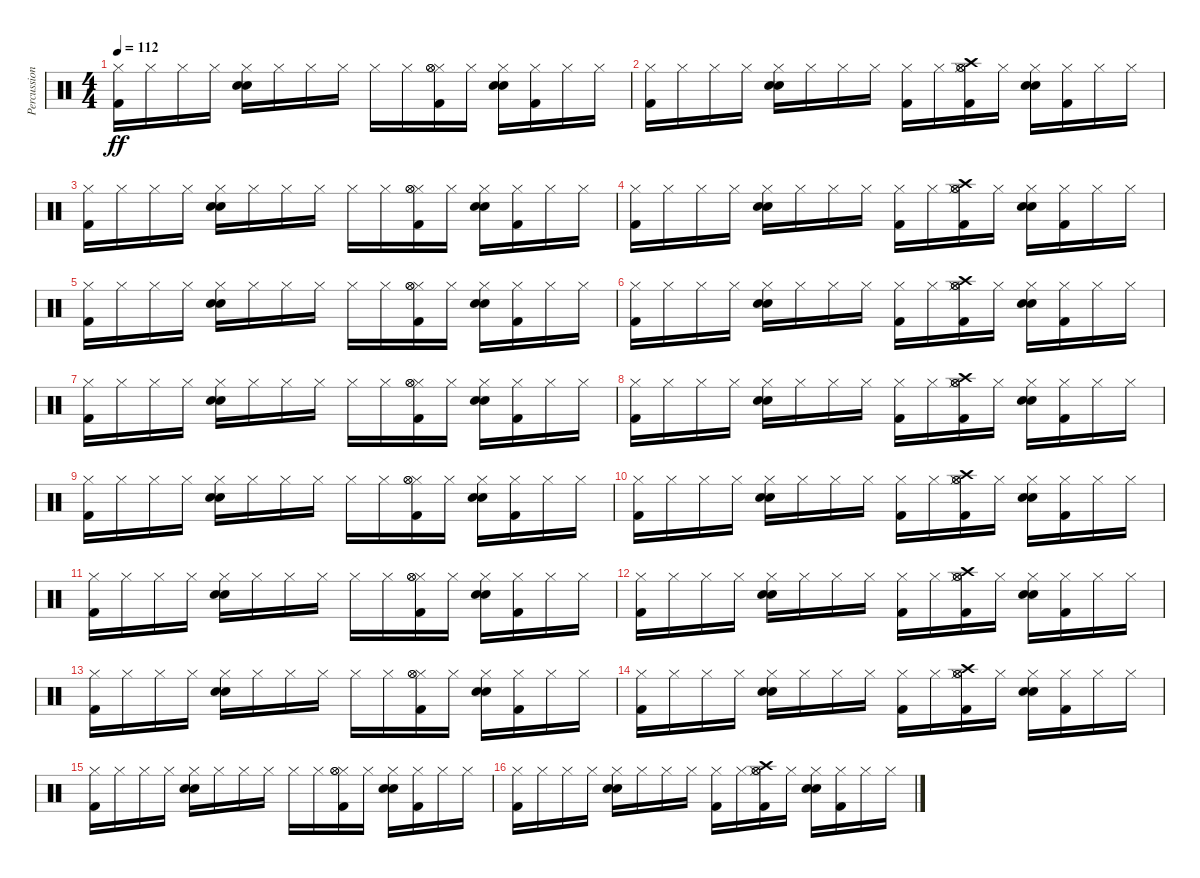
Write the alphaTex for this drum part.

\track ("Percussion" "Percussion") {instrument percussion}
\staff {score}
\articulation defaults
\ts (4 4)
\tempo 112
\clef neutral
\ks c
("Kick (hit) 2" "Hi-Hat (closed)").16{dy ff} "Hi-Hat (closed)".16 "Hi-Hat (closed)".16 "Hi-Hat (closed)".16 ("Snare (hit) 2" "Hi-Hat (closed)" "Hand Clap (hit)").16 "Hi-Hat (closed)".16 "Hi-Hat (closed)".16 "Hi-Hat (closed)".16 "Hi-Hat (closed)".16 "Hi-Hat (closed)".16 ("Kick (hit) 2" "Hi-Hat (closed)" "Hi-Hat (open)" "Hi-Hat (open)").16 "Hi-Hat (closed)".16 ("Snare (hit) 2" "Hi-Hat (closed)" "Hand Clap (hit)").16 ("Kick (hit) 2" "Hi-Hat (closed)").16 "Hi-Hat (closed)".16 "Hi-Hat (closed)".16 |
("Kick (hit) 2" "Hi-Hat (closed)").16 "Hi-Hat (closed)".16 "Hi-Hat (closed)".16 "Hi-Hat (closed)".16 ("Snare (hit) 2" "Hi-Hat (closed)" "Hand Clap (hit)").16 "Hi-Hat (closed)".16 "Hi-Hat (closed)".16 "Hi-Hat (closed)".16 ("Kick (hit) 2" "Hi-Hat (closed)").16 "Hi-Hat (closed)".16 ("Kick (hit) 2" "Crash high (hit)" "Hi-Hat (closed)" "Hi-Hat (open)" "Hi-Hat (open)").16 "Hi-Hat (closed)".16 ("Snare (hit) 2" "Hi-Hat (closed)" "Hand Clap (hit)").16 ("Kick (hit) 2" "Hi-Hat (closed)").16 "Hi-Hat (closed)".16 "Hi-Hat (closed)".16 |
("Kick (hit) 2" "Hi-Hat (closed)").16 "Hi-Hat (closed)".16 "Hi-Hat (closed)".16 "Hi-Hat (closed)".16 ("Snare (hit) 2" "Hi-Hat (closed)" "Hand Clap (hit)").16 "Hi-Hat (closed)".16 "Hi-Hat (closed)".16 "Hi-Hat (closed)".16 "Hi-Hat (closed)".16 "Hi-Hat (closed)".16 ("Kick (hit) 2" "Hi-Hat (closed)" "Hi-Hat (open)" "Hi-Hat (open)").16 "Hi-Hat (closed)".16 ("Snare (hit) 2" "Hi-Hat (closed)" "Hand Clap (hit)").16 ("Kick (hit) 2" "Hi-Hat (closed)").16 "Hi-Hat (closed)".16 "Hi-Hat (closed)".16 |
("Kick (hit) 2" "Hi-Hat (closed)").16 "Hi-Hat (closed)".16 "Hi-Hat (closed)".16 "Hi-Hat (closed)".16 ("Snare (hit) 2" "Hi-Hat (closed)" "Hand Clap (hit)").16 "Hi-Hat (closed)".16 "Hi-Hat (closed)".16 "Hi-Hat (closed)".16 ("Kick (hit) 2" "Hi-Hat (closed)").16 "Hi-Hat (closed)".16 ("Kick (hit) 2" "Crash high (hit)" "Hi-Hat (closed)" "Hi-Hat (open)" "Hi-Hat (open)").16 "Hi-Hat (closed)".16 ("Snare (hit) 2" "Hi-Hat (closed)" "Hand Clap (hit)").16 ("Kick (hit) 2" "Hi-Hat (closed)").16 "Hi-Hat (closed)".16 "Hi-Hat (closed)".16 |
("Kick (hit) 2" "Hi-Hat (closed)").16 "Hi-Hat (closed)".16 "Hi-Hat (closed)".16 "Hi-Hat (closed)".16 ("Snare (hit) 2" "Hi-Hat (closed)" "Hand Clap (hit)").16 "Hi-Hat (closed)".16 "Hi-Hat (closed)".16 "Hi-Hat (closed)".16 "Hi-Hat (closed)".16 "Hi-Hat (closed)".16 ("Kick (hit) 2" "Hi-Hat (closed)" "Hi-Hat (open)" "Hi-Hat (open)").16 "Hi-Hat (closed)".16 ("Snare (hit) 2" "Hi-Hat (closed)" "Hand Clap (hit)").16 ("Kick (hit) 2" "Hi-Hat (closed)").16 "Hi-Hat (closed)".16 "Hi-Hat (closed)".16 |
("Kick (hit) 2" "Hi-Hat (closed)").16 "Hi-Hat (closed)".16 "Hi-Hat (closed)".16 "Hi-Hat (closed)".16 ("Snare (hit) 2" "Hi-Hat (closed)" "Hand Clap (hit)").16 "Hi-Hat (closed)".16 "Hi-Hat (closed)".16 "Hi-Hat (closed)".16 ("Kick (hit) 2" "Hi-Hat (closed)").16 "Hi-Hat (closed)".16 ("Kick (hit) 2" "Crash high (hit)" "Hi-Hat (closed)" "Hi-Hat (open)" "Hi-Hat (open)").16 "Hi-Hat (closed)".16 ("Snare (hit) 2" "Hi-Hat (closed)" "Hand Clap (hit)").16 ("Kick (hit) 2" "Hi-Hat (closed)").16 "Hi-Hat (closed)".16 "Hi-Hat (closed)".16 |
("Kick (hit) 2" "Hi-Hat (closed)").16 "Hi-Hat (closed)".16 "Hi-Hat (closed)".16 "Hi-Hat (closed)".16 ("Snare (hit) 2" "Hi-Hat (closed)" "Hand Clap (hit)").16 "Hi-Hat (closed)".16 "Hi-Hat (closed)".16 "Hi-Hat (closed)".16 "Hi-Hat (closed)".16 "Hi-Hat (closed)".16 ("Kick (hit) 2" "Hi-Hat (closed)" "Hi-Hat (open)" "Hi-Hat (open)").16 "Hi-Hat (closed)".16 ("Snare (hit) 2" "Hi-Hat (closed)" "Hand Clap (hit)").16 ("Kick (hit) 2" "Hi-Hat (closed)").16 "Hi-Hat (closed)".16 "Hi-Hat (closed)".16 |
("Kick (hit) 2" "Hi-Hat (closed)").16 "Hi-Hat (closed)".16 "Hi-Hat (closed)".16 "Hi-Hat (closed)".16 ("Snare (hit) 2" "Hi-Hat (closed)" "Hand Clap (hit)").16 "Hi-Hat (closed)".16 "Hi-Hat (closed)".16 "Hi-Hat (closed)".16 ("Kick (hit) 2" "Hi-Hat (closed)").16 "Hi-Hat (closed)".16 ("Kick (hit) 2" "Crash high (hit)" "Hi-Hat (closed)" "Hi-Hat (open)" "Hi-Hat (open)").16 "Hi-Hat (closed)".16 ("Snare (hit) 2" "Hi-Hat (closed)" "Hand Clap (hit)").16 ("Kick (hit) 2" "Hi-Hat (closed)").16 "Hi-Hat (closed)".16 "Hi-Hat (closed)".16 |
("Kick (hit) 2" "Hi-Hat (closed)").16 "Hi-Hat (closed)".16 "Hi-Hat (closed)".16 "Hi-Hat (closed)".16 ("Snare (hit) 2" "Hi-Hat (closed)" "Hand Clap (hit)").16 "Hi-Hat (closed)".16 "Hi-Hat (closed)".16 "Hi-Hat (closed)".16 "Hi-Hat (closed)".16 "Hi-Hat (closed)".16 ("Kick (hit) 2" "Hi-Hat (closed)" "Hi-Hat (open)" "Hi-Hat (open)").16 "Hi-Hat (closed)".16 ("Snare (hit) 2" "Hi-Hat (closed)" "Hand Clap (hit)").16 ("Kick (hit) 2" "Hi-Hat (closed)").16 "Hi-Hat (closed)".16 "Hi-Hat (closed)".16 |
("Kick (hit) 2" "Hi-Hat (closed)").16 "Hi-Hat (closed)".16 "Hi-Hat (closed)".16 "Hi-Hat (closed)".16 ("Snare (hit) 2" "Hi-Hat (closed)" "Hand Clap (hit)").16 "Hi-Hat (closed)".16 "Hi-Hat (closed)".16 "Hi-Hat (closed)".16 ("Kick (hit) 2" "Hi-Hat (closed)").16 "Hi-Hat (closed)".16 ("Kick (hit) 2" "Crash high (hit)" "Hi-Hat (closed)" "Hi-Hat (open)" "Hi-Hat (open)").16 "Hi-Hat (closed)".16 ("Snare (hit) 2" "Hi-Hat (closed)" "Hand Clap (hit)").16 ("Kick (hit) 2" "Hi-Hat (closed)").16 "Hi-Hat (closed)".16 "Hi-Hat (closed)".16 |
("Kick (hit) 2" "Hi-Hat (closed)").16 "Hi-Hat (closed)".16 "Hi-Hat (closed)".16 "Hi-Hat (closed)".16 ("Snare (hit) 2" "Hi-Hat (closed)" "Hand Clap (hit)").16 "Hi-Hat (closed)".16 "Hi-Hat (closed)".16 "Hi-Hat (closed)".16 "Hi-Hat (closed)".16 "Hi-Hat (closed)".16 ("Kick (hit) 2" "Hi-Hat (closed)" "Hi-Hat (open)" "Hi-Hat (open)").16 "Hi-Hat (closed)".16 ("Snare (hit) 2" "Hi-Hat (closed)" "Hand Clap (hit)").16 ("Kick (hit) 2" "Hi-Hat (closed)").16 "Hi-Hat (closed)".16 "Hi-Hat (closed)".16 |
("Kick (hit) 2" "Hi-Hat (closed)").16 "Hi-Hat (closed)".16 "Hi-Hat (closed)".16 "Hi-Hat (closed)".16 ("Snare (hit) 2" "Hi-Hat (closed)" "Hand Clap (hit)").16 "Hi-Hat (closed)".16 "Hi-Hat (closed)".16 "Hi-Hat (closed)".16 ("Kick (hit) 2" "Hi-Hat (closed)").16 "Hi-Hat (closed)".16 ("Kick (hit) 2" "Crash high (hit)" "Hi-Hat (closed)" "Hi-Hat (open)" "Hi-Hat (open)").16 "Hi-Hat (closed)".16 ("Snare (hit) 2" "Hi-Hat (closed)" "Hand Clap (hit)").16 ("Kick (hit) 2" "Hi-Hat (closed)").16 "Hi-Hat (closed)".16 "Hi-Hat (closed)".16 |
("Kick (hit) 2" "Hi-Hat (closed)").16 "Hi-Hat (closed)".16 "Hi-Hat (closed)".16 "Hi-Hat (closed)".16 ("Snare (hit) 2" "Hi-Hat (closed)" "Hand Clap (hit)").16 "Hi-Hat (closed)".16 "Hi-Hat (closed)".16 "Hi-Hat (closed)".16 "Hi-Hat (closed)".16 "Hi-Hat (closed)".16 ("Kick (hit) 2" "Hi-Hat (closed)" "Hi-Hat (open)" "Hi-Hat (open)").16 "Hi-Hat (closed)".16 ("Snare (hit) 2" "Hi-Hat (closed)" "Hand Clap (hit)").16 ("Kick (hit) 2" "Hi-Hat (closed)").16 "Hi-Hat (closed)".16 "Hi-Hat (closed)".16 |
("Kick (hit) 2" "Hi-Hat (closed)").16 "Hi-Hat (closed)".16 "Hi-Hat (closed)".16 "Hi-Hat (closed)".16 ("Snare (hit) 2" "Hi-Hat (closed)" "Hand Clap (hit)").16 "Hi-Hat (closed)".16 "Hi-Hat (closed)".16 "Hi-Hat (closed)".16 ("Kick (hit) 2" "Hi-Hat (closed)").16 "Hi-Hat (closed)".16 ("Kick (hit) 2" "Crash high (hit)" "Hi-Hat (closed)" "Hi-Hat (open)" "Hi-Hat (open)").16 "Hi-Hat (closed)".16 ("Snare (hit) 2" "Hi-Hat (closed)" "Hand Clap (hit)").16 ("Kick (hit) 2" "Hi-Hat (closed)").16 "Hi-Hat (closed)".16 "Hi-Hat (closed)".16 |
("Kick (hit) 2" "Hi-Hat (closed)").16 "Hi-Hat (closed)".16 "Hi-Hat (closed)".16 "Hi-Hat (closed)".16 ("Snare (hit) 2" "Hi-Hat (closed)" "Hand Clap (hit)").16 "Hi-Hat (closed)".16 "Hi-Hat (closed)".16 "Hi-Hat (closed)".16 "Hi-Hat (closed)".16 "Hi-Hat (closed)".16 ("Kick (hit) 2" "Hi-Hat (closed)" "Hi-Hat (open)" "Hi-Hat (open)").16 "Hi-Hat (closed)".16 ("Snare (hit) 2" "Hi-Hat (closed)" "Hand Clap (hit)").16 ("Kick (hit) 2" "Hi-Hat (closed)").16 "Hi-Hat (closed)".16 "Hi-Hat (closed)".16 |
("Kick (hit) 2" "Hi-Hat (closed)").16 "Hi-Hat (closed)".16 "Hi-Hat (closed)".16 "Hi-Hat (closed)".16 ("Snare (hit) 2" "Hi-Hat (closed)" "Hand Clap (hit)").16 "Hi-Hat (closed)".16 "Hi-Hat (closed)".16 "Hi-Hat (closed)".16 ("Kick (hit) 2" "Hi-Hat (closed)").16 "Hi-Hat (closed)".16 ("Kick (hit) 2" "Crash high (hit)" "Hi-Hat (closed)" "Hi-Hat (open)" "Hi-Hat (open)").16 "Hi-Hat (closed)".16 ("Snare (hit) 2" "Hi-Hat (closed)" "Hand Clap (hit)").16 ("Kick (hit) 2" "Hi-Hat (closed)").16 "Hi-Hat (closed)".16 "Hi-Hat (closed)".16
